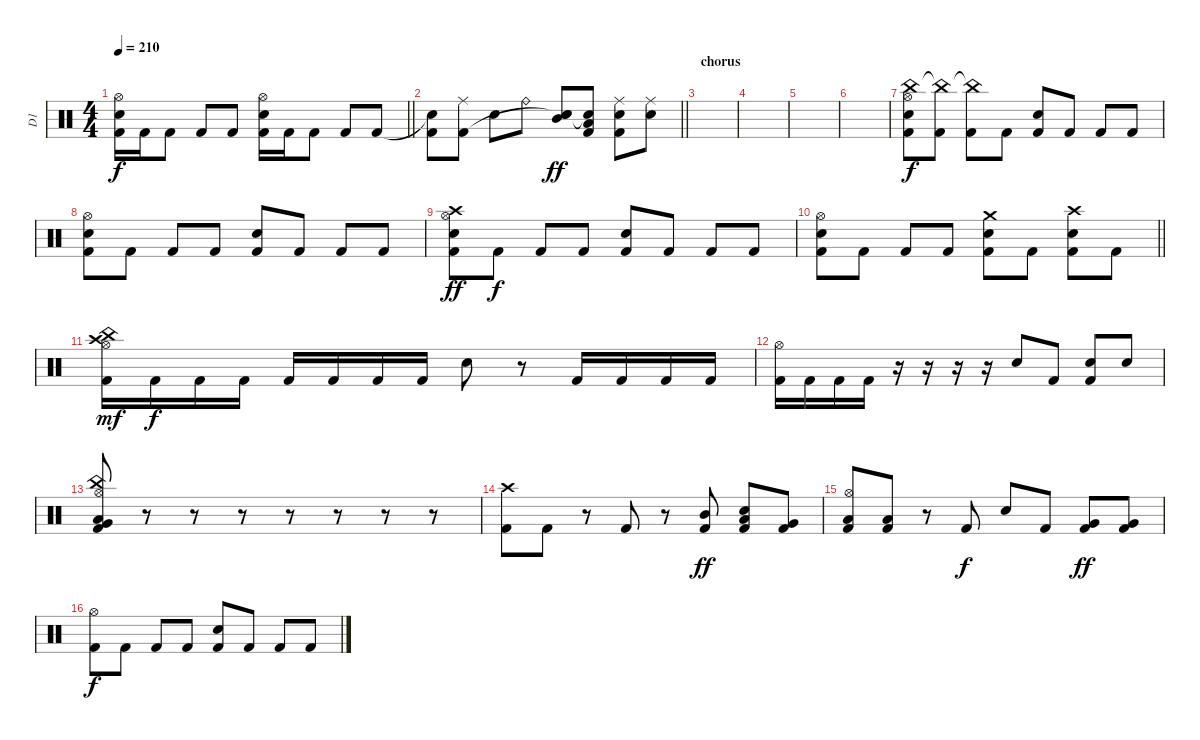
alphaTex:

\track ("D1" "D1") {instrument percussion}
\staff {score}
\articulation defaults
\ts (4 4)
\tempo 210
\clef neutral
\barLineRight lightlight
\ks c
("Kick (hit) 2" "Snare (hit) 2" "Hi-Hat (open)").16{dy f} "Kick (hit) 2".16 "Kick (hit) 2".8 "Kick (hit) 2".8 "Kick (hit) 2".8 ("Kick (hit) 2" "Snare (hit) 2" "Hi-Hat (open)").16 "Kick (hit) 2".16 "Kick (hit) 2".8 "Kick (hit) 2".8 "Kick (hit) 2".8 |
\barLineRight lightlight
("Snare (hit)"{t} "Kick (hit) 2").8 ("Ride (middle)" "Kick (hit) 2").8 "Snare (hit) 2".8 "Ride (bell)".8 ("Mid Tom (hit)" "Snare (hit)"{t} "Snare (hit) 2").8{dy ff} ("Low Tom (hit)" "Snare (hit)"{t} "Kick (hit) 2").8 ("Snare (hit) 2" "Ride (middle)" "Kick (hit) 2").8 ("Snare (hit) 2" "Ride (middle)").8 |
\section ("" "chorus")
|
|
|
|
("China (hit)" "Hi-Hat (open)" "Snare (hit) 2" "Kick (hit) 2").8{dy f} ("China (hit)"{t} "Kick (hit) 2").8 ("China (hit)"{t} "Kick (hit) 2").8 "Kick (hit) 2".8 ("Snare (hit) 2" "Kick (hit) 2").8 "Kick (hit) 2".8 "Kick (hit) 2".8 "Kick (hit) 2".8 |
("Hi-Hat (open)" "Snare (hit) 2" "Kick (hit) 2").8 "Kick (hit) 2".8 "Kick (hit) 2".8 "Kick (hit) 2".8 ("Snare (hit) 2" "Kick (hit) 2").8 "Kick (hit) 2".8 "Kick (hit) 2".8 "Kick (hit) 2".8 |
("Crash high (hit)" "Hi-Hat (open)" "Snare (hit) 2" "Kick (hit) 2").8{dy ff} "Kick (hit) 2".8{dy f} "Kick (hit) 2".8 "Kick (hit) 2".8 ("Snare (hit) 2" "Kick (hit) 2").8 "Kick (hit) 2".8 "Kick (hit) 2".8 "Kick (hit) 2".8 |
\barLineRight lightlight
("Hi-Hat (open)" "Snare (hit) 2" "Kick (hit) 2").8 "Kick (hit) 2".8 "Kick (hit) 2".8 "Kick (hit) 2".8 ("Crash medium (hit)" "Snare (hit) 2" "Kick (hit) 2").8 "Kick (hit) 2".8 ("Crash high (hit)" "Snare (hit) 2" "Kick (hit) 2").8 "Kick (hit) 2".8 |
\section ("" "")
("China (hit)" "Hi-Hat (open)" "Crash high (hit)" "Kick (hit) 2").16{dy mf} "Kick (hit) 2".16{dy f} "Kick (hit) 2".16 "Kick (hit) 2".16 "Kick (hit) 2".16 "Kick (hit) 2".16 "Kick (hit) 2".16 "Kick (hit) 2".16 "Snare (hit) 2".8 r.8 "Kick (hit) 2".16 "Kick (hit) 2".16 "Kick (hit) 2".16 "Kick (hit) 2".16 |
("Hi-Hat (open)" "Kick (hit) 2").16 "Kick (hit) 2".16 "Kick (hit) 2".16 "Kick (hit) 2".16 r.16 r.16 r.16 r.16 "Snare (hit) 2".8 "Kick (hit) 2".8 ("Snare (hit) 2" "Kick (hit) 2").8 "Snare (hit) 2".8 |
("China (hit)" "Hi-Hat (open)" "Very Low Tom (hit)" "Low Tom (hit)" "Kick (hit) 2").8 r.8 r.8 r.8 r.8 r.8 r.8 r.8 |
("Crash high (hit)" "Kick (hit) 2").8 "Kick (hit) 2".8 r.8 "Kick (hit) 2".8 r.8 ("Mid Tom (hit)" "Kick (hit) 2").8{dy ff} ("Low Tom (hit)" "Snare (hit) 2" "Kick (hit) 2").8 ("Very Low Tom (hit)" "Kick (hit) 2").8 |
("Low Tom (hit)" "Hi-Hat (open)" "Kick (hit) 2").8 ("Low Tom (hit)" "Kick (hit) 2").8 r.8 "Kick (hit) 2".8{dy f} "Snare (hit) 2".8 "Kick (hit) 2".8 ("Very Low Tom (hit)" "Kick (hit) 2").8{dy ff} ("Very Low Tom (hit)" "Kick (hit) 2").8 |
("Hi-Hat (open)" "Kick (hit) 2").8{dy f} "Kick (hit) 2".8 "Kick (hit) 2".8 "Kick (hit) 2".8 ("Snare (hit) 2" "Kick (hit) 2").8 "Kick (hit) 2".8 "Kick (hit) 2".8 "Kick (hit) 2".8
